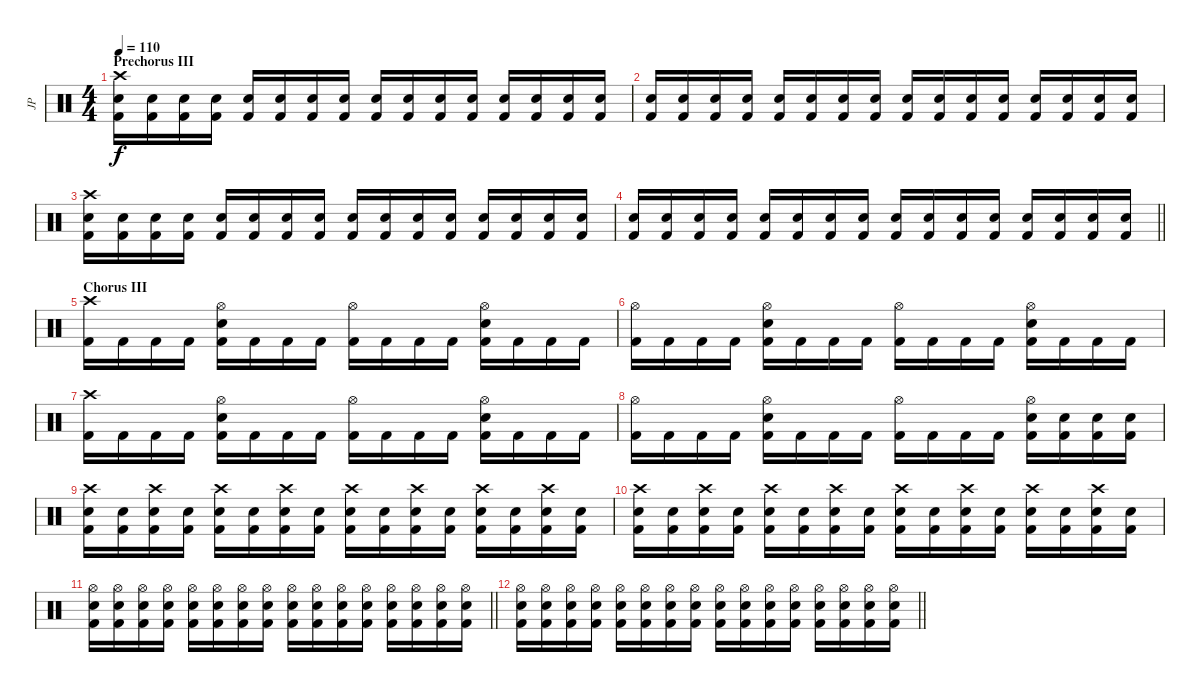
\track ("JP" "JP") {instrument percussion}
\staff {score}
\articulation defaults
\ts (4 4)
\section ("" "Prechorus III")
\tempo 110
\clef neutral
\ks c
("Crash high (hit)" "Electric Snare (hit)" "Kick (hit) 2").16{dy f} ("Electric Snare (hit)" "Kick (hit) 2").16 ("Electric Snare (hit)" "Kick (hit) 2").16 ("Electric Snare (hit)" "Kick (hit) 2").16 ("Electric Snare (hit)" "Kick (hit) 2").16 ("Electric Snare (hit)" "Kick (hit) 2").16 ("Electric Snare (hit)" "Kick (hit) 2").16 ("Electric Snare (hit)" "Kick (hit) 2").16 ("Electric Snare (hit)" "Kick (hit) 2").16 ("Electric Snare (hit)" "Kick (hit) 2").16 ("Electric Snare (hit)" "Kick (hit) 2").16 ("Electric Snare (hit)" "Kick (hit) 2").16 ("Electric Snare (hit)" "Kick (hit) 2").16 ("Electric Snare (hit)" "Kick (hit) 2").16 ("Electric Snare (hit)" "Kick (hit) 2").16 ("Electric Snare (hit)" "Kick (hit) 2").16 |
("Electric Snare (hit)" "Kick (hit) 2").16 ("Electric Snare (hit)" "Kick (hit) 2").16 ("Electric Snare (hit)" "Kick (hit) 2").16 ("Electric Snare (hit)" "Kick (hit) 2").16 ("Electric Snare (hit)" "Kick (hit) 2").16 ("Electric Snare (hit)" "Kick (hit) 2").16 ("Electric Snare (hit)" "Kick (hit) 2").16 ("Electric Snare (hit)" "Kick (hit) 2").16 ("Electric Snare (hit)" "Kick (hit) 2").16 ("Electric Snare (hit)" "Kick (hit) 2").16 ("Electric Snare (hit)" "Kick (hit) 2").16 ("Electric Snare (hit)" "Kick (hit) 2").16 ("Electric Snare (hit)" "Kick (hit) 2").16 ("Electric Snare (hit)" "Kick (hit) 2").16 ("Electric Snare (hit)" "Kick (hit) 2").16 ("Electric Snare (hit)" "Kick (hit) 2").16 |
("Crash high (hit)" "Electric Snare (hit)" "Kick (hit) 2").16 ("Electric Snare (hit)" "Kick (hit) 2").16 ("Electric Snare (hit)" "Kick (hit) 2").16 ("Electric Snare (hit)" "Kick (hit) 2").16 ("Electric Snare (hit)" "Kick (hit) 2").16 ("Electric Snare (hit)" "Kick (hit) 2").16 ("Electric Snare (hit)" "Kick (hit) 2").16 ("Electric Snare (hit)" "Kick (hit) 2").16 ("Electric Snare (hit)" "Kick (hit) 2").16 ("Electric Snare (hit)" "Kick (hit) 2").16 ("Electric Snare (hit)" "Kick (hit) 2").16 ("Electric Snare (hit)" "Kick (hit) 2").16 ("Electric Snare (hit)" "Kick (hit) 2").16 ("Electric Snare (hit)" "Kick (hit) 2").16 ("Electric Snare (hit)" "Kick (hit) 2").16 ("Electric Snare (hit)" "Kick (hit) 2").16 |
\barLineRight lightlight
("Electric Snare (hit)" "Kick (hit) 2").16 ("Electric Snare (hit)" "Kick (hit) 2").16 ("Electric Snare (hit)" "Kick (hit) 2").16 ("Electric Snare (hit)" "Kick (hit) 2").16 ("Electric Snare (hit)" "Kick (hit) 2").16 ("Electric Snare (hit)" "Kick (hit) 2").16 ("Electric Snare (hit)" "Kick (hit) 2").16 ("Electric Snare (hit)" "Kick (hit) 2").16 ("Electric Snare (hit)" "Kick (hit) 2").16 ("Electric Snare (hit)" "Kick (hit) 2").16 ("Electric Snare (hit)" "Kick (hit) 2").16 ("Electric Snare (hit)" "Kick (hit) 2").16 ("Electric Snare (hit)" "Kick (hit) 2").16 ("Electric Snare (hit)" "Kick (hit) 2").16 ("Electric Snare (hit)" "Kick (hit) 2").16 ("Electric Snare (hit)" "Kick (hit) 2").16 |
\section ("" "Chorus III")
("Crash high (hit)" "Kick (hit) 2").16 "Kick (hit) 2".16 "Kick (hit) 2".16 "Kick (hit) 2".16 ("Hi-Hat (open)" "Electric Snare (hit)" "Kick (hit) 2").16 "Kick (hit) 2".16 "Kick (hit) 2".16 "Kick (hit) 2".16 ("Hi-Hat (open)" "Kick (hit) 2").16 "Kick (hit) 2".16 "Kick (hit) 2".16 "Kick (hit) 2".16 ("Hi-Hat (open)" "Electric Snare (hit)" "Kick (hit) 2").16 "Kick (hit) 2".16 "Kick (hit) 2".16 "Kick (hit) 2".16 |
("Hi-Hat (open)" "Kick (hit) 2").16 "Kick (hit) 2".16 "Kick (hit) 2".16 "Kick (hit) 2".16 ("Hi-Hat (open)" "Electric Snare (hit)" "Kick (hit) 2").16 "Kick (hit) 2".16 "Kick (hit) 2".16 "Kick (hit) 2".16 ("Hi-Hat (open)" "Kick (hit) 2").16 "Kick (hit) 2".16 "Kick (hit) 2".16 "Kick (hit) 2".16 ("Hi-Hat (open)" "Electric Snare (hit)" "Kick (hit) 2").16 "Kick (hit) 2".16 "Kick (hit) 2".16 "Kick (hit) 2".16 |
("Crash high (hit)" "Kick (hit) 2").16 "Kick (hit) 2".16 "Kick (hit) 2".16 "Kick (hit) 2".16 ("Hi-Hat (open)" "Electric Snare (hit)" "Kick (hit) 2").16 "Kick (hit) 2".16 "Kick (hit) 2".16 "Kick (hit) 2".16 ("Hi-Hat (open)" "Kick (hit) 2").16 "Kick (hit) 2".16 "Kick (hit) 2".16 "Kick (hit) 2".16 ("Hi-Hat (open)" "Electric Snare (hit)" "Kick (hit) 2").16 "Kick (hit) 2".16 "Kick (hit) 2".16 "Kick (hit) 2".16 |
("Hi-Hat (open)" "Kick (hit) 2").16 "Kick (hit) 2".16 "Kick (hit) 2".16 "Kick (hit) 2".16 ("Hi-Hat (open)" "Electric Snare (hit)" "Kick (hit) 2").16 "Kick (hit) 2".16 "Kick (hit) 2".16 "Kick (hit) 2".16 ("Hi-Hat (open)" "Kick (hit) 2").16 "Kick (hit) 2".16 "Kick (hit) 2".16 "Kick (hit) 2".16 ("Hi-Hat (open)" "Electric Snare (hit)" "Kick (hit) 2").16 ("Electric Snare (hit)" "Kick (hit) 2").16 ("Electric Snare (hit)" "Kick (hit) 2").16 ("Electric Snare (hit)" "Kick (hit) 2").16 |
("Crash high (hit)" "Electric Snare (hit)" "Kick (hit) 2").16 ("Electric Snare (hit)" "Kick (hit) 2").16 ("Crash high (hit)" "Electric Snare (hit)" "Kick (hit) 2").16 ("Electric Snare (hit)" "Kick (hit) 2").16 ("Crash high (hit)" "Electric Snare (hit)" "Kick (hit) 2").16 ("Electric Snare (hit)" "Kick (hit) 2").16 ("Crash high (hit)" "Electric Snare (hit)" "Kick (hit) 2").16 ("Electric Snare (hit)" "Kick (hit) 2").16 ("Crash high (hit)" "Electric Snare (hit)" "Kick (hit) 2").16 ("Electric Snare (hit)" "Kick (hit) 2").16 ("Crash high (hit)" "Electric Snare (hit)" "Kick (hit) 2").16 ("Electric Snare (hit)" "Kick (hit) 2").16 ("Crash high (hit)" "Electric Snare (hit)" "Kick (hit) 2").16 ("Electric Snare (hit)" "Kick (hit) 2").16 ("Crash high (hit)" "Electric Snare (hit)" "Kick (hit) 2").16 ("Electric Snare (hit)" "Kick (hit) 2").16 |
("Crash high (hit)" "Electric Snare (hit)" "Kick (hit) 2").16 ("Electric Snare (hit)" "Kick (hit) 2").16 ("Crash high (hit)" "Electric Snare (hit)" "Kick (hit) 2").16 ("Electric Snare (hit)" "Kick (hit) 2").16 ("Crash high (hit)" "Electric Snare (hit)" "Kick (hit) 2").16 ("Electric Snare (hit)" "Kick (hit) 2").16 ("Crash high (hit)" "Electric Snare (hit)" "Kick (hit) 2").16 ("Electric Snare (hit)" "Kick (hit) 2").16 ("Crash high (hit)" "Electric Snare (hit)" "Kick (hit) 2").16 ("Electric Snare (hit)" "Kick (hit) 2").16 ("Crash high (hit)" "Electric Snare (hit)" "Kick (hit) 2").16 ("Electric Snare (hit)" "Kick (hit) 2").16 ("Crash high (hit)" "Electric Snare (hit)" "Kick (hit) 2").16 ("Electric Snare (hit)" "Kick (hit) 2").16 ("Crash high (hit)" "Electric Snare (hit)" "Kick (hit) 2").16 ("Electric Snare (hit)" "Kick (hit) 2").16 |
\barLineRight lightlight
("Hi-Hat (open)" "Electric Snare (hit)" "Kick (hit) 2").16 ("Hi-Hat (open)" "Electric Snare (hit)" "Kick (hit) 2").16 ("Hi-Hat (open)" "Electric Snare (hit)" "Kick (hit) 2").16 ("Hi-Hat (open)" "Electric Snare (hit)" "Kick (hit) 2").16 ("Hi-Hat (open)" "Electric Snare (hit)" "Kick (hit) 2").16 ("Hi-Hat (open)" "Electric Snare (hit)" "Kick (hit) 2").16 ("Hi-Hat (open)" "Electric Snare (hit)" "Kick (hit) 2").16 ("Hi-Hat (open)" "Electric Snare (hit)" "Kick (hit) 2").16 ("Hi-Hat (open)" "Electric Snare (hit)" "Kick (hit) 2").16 ("Hi-Hat (open)" "Electric Snare (hit)" "Kick (hit) 2").16 ("Hi-Hat (open)" "Electric Snare (hit)" "Kick (hit) 2").16 ("Hi-Hat (open)" "Electric Snare (hit)" "Kick (hit) 2").16 ("Hi-Hat (open)" "Electric Snare (hit)" "Kick (hit) 2").16 ("Hi-Hat (open)" "Electric Snare (hit)" "Kick (hit) 2").16 ("Hi-Hat (open)" "Electric Snare (hit)" "Kick (hit) 2").16 ("Hi-Hat (open)" "Electric Snare (hit)" "Kick (hit) 2").16 |
\section ("" "")
\barLineRight lightlight
("Hi-Hat (open)" "Electric Snare (hit)" "Kick (hit) 2").16 ("Hi-Hat (open)" "Electric Snare (hit)" "Kick (hit) 2").16 ("Hi-Hat (open)" "Electric Snare (hit)" "Kick (hit) 2").16 ("Hi-Hat (open)" "Electric Snare (hit)" "Kick (hit) 2").16 ("Hi-Hat (open)" "Electric Snare (hit)" "Kick (hit) 2").16 ("Hi-Hat (open)" "Electric Snare (hit)" "Kick (hit) 2").16 ("Hi-Hat (open)" "Electric Snare (hit)" "Kick (hit) 2").16 ("Hi-Hat (open)" "Electric Snare (hit)" "Kick (hit) 2").16 ("Hi-Hat (open)" "Electric Snare (hit)" "Kick (hit) 2").16 ("Hi-Hat (open)" "Electric Snare (hit)" "Kick (hit) 2").16 ("Hi-Hat (open)" "Electric Snare (hit)" "Kick (hit) 2").16 ("Hi-Hat (open)" "Electric Snare (hit)" "Kick (hit) 2").16 ("Hi-Hat (open)" "Electric Snare (hit)" "Kick (hit) 2").16 ("Hi-Hat (open)" "Electric Snare (hit)" "Kick (hit) 2").16 ("Hi-Hat (open)" "Electric Snare (hit)" "Kick (hit) 2").16 ("Hi-Hat (open)" "Electric Snare (hit)" "Kick (hit) 2").16
